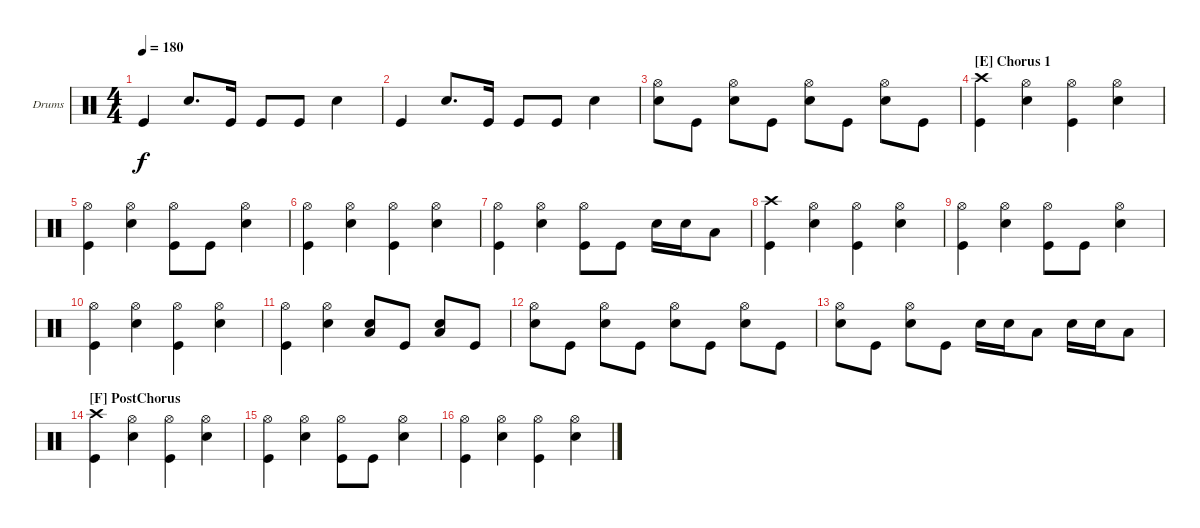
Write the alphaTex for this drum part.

\defaultSystemsLayout 4
\bracketExtendMode groupsimilarinstruments
\firstSystemTrackNameOrientation horizontal
\otherSystemsTrackNameOrientation horizontal
\track ("Drumkit" "Drums") {instrument percussion}
\staff {score}
\articulation defaults
\ts (4 4)
\tempo 180
\clef neutral
\ks c "Kick (hit)".4{dy f} "Snare (hit) 2".8{d} "Kick (hit)".16 "Kick (hit)".8 "Kick (hit)".8 "Snare (hit) 2".4
|
"Kick (hit)".4 "Snare (hit) 2".8{d} "Kick (hit)".16 "Kick (hit)".8 "Kick (hit)".8 "Snare (hit) 2".4 |
("Hi-Hat (open)" "Snare (hit) 2").8 "Kick (hit)".8 ("Hi-Hat (open)" "Snare (hit) 2").8 "Kick (hit)".8 ("Hi-Hat (open)" "Snare (hit) 2").8 "Kick (hit)".8 ("Hi-Hat (open)" "Snare (hit) 2").8 "Kick (hit)".8 |
\section ("E" "Chorus 1")
("Crash high (hit)" "Kick (hit)").4 ("Snare (hit) 2" "Hi-Hat (open)").4 ("Kick (hit)" "Hi-Hat (open)").4 ("Snare (hit) 2" "Hi-Hat (open)").4 |
("Kick (hit)" "Hi-Hat (open)").4 ("Snare (hit) 2" "Hi-Hat (open)").4 ("Kick (hit)" "Hi-Hat (open)").8 "Kick (hit)".8 ("Snare (hit) 2" "Hi-Hat (open)").4 |
("Kick (hit)" "Hi-Hat (open)").4 ("Snare (hit) 2" "Hi-Hat (open)").4 ("Kick (hit)" "Hi-Hat (open)").4 ("Snare (hit) 2" "Hi-Hat (open)").4 |
("Kick (hit)" "Hi-Hat (open)").4 ("Snare (hit) 2" "Hi-Hat (open)").4 ("Kick (hit)" "Hi-Hat (open)").8 "Kick (hit)".8 "Snare (hit) 2".16 "Snare (hit) 2".16 "Low Tom (hit)".8 |
("Crash high (hit)" "Kick (hit)").4 ("Snare (hit) 2" "Hi-Hat (open)").4 ("Kick (hit)" "Hi-Hat (open)").4 ("Snare (hit) 2" "Hi-Hat (open)").4 |
("Kick (hit)" "Hi-Hat (open)").4 ("Snare (hit) 2" "Hi-Hat (open)").4 ("Kick (hit)" "Hi-Hat (open)").8 "Kick (hit)".8 ("Snare (hit) 2" "Hi-Hat (open)").4 |
("Kick (hit)" "Hi-Hat (open)").4 ("Snare (hit) 2" "Hi-Hat (open)").4 ("Kick (hit)" "Hi-Hat (open)").4 ("Snare (hit) 2" "Hi-Hat (open)").4 |
("Kick (hit)" "Hi-Hat (open)").4 ("Snare (hit) 2" "Hi-Hat (open)").4 ("Low Tom (hit)" "Snare (hit) 2").8 "Kick (hit)".8 ("Low Tom (hit)" "Snare (hit) 2").8 "Kick (hit)".8 |
("Hi-Hat (open)" "Snare (hit) 2").8 "Kick (hit)".8 ("Hi-Hat (open)" "Snare (hit) 2").8 "Kick (hit)".8 ("Hi-Hat (open)" "Snare (hit) 2").8 "Kick (hit)".8 ("Hi-Hat (open)" "Snare (hit) 2").8 "Kick (hit)".8 |
("Hi-Hat (open)" "Snare (hit) 2").8 "Kick (hit)".8 ("Hi-Hat (open)" "Snare (hit) 2").8 "Kick (hit)".8 "Snare (hit) 2".16 "Snare (hit) 2".16 "Low Tom (hit)".8 "Snare (hit) 2".16 "Snare (hit) 2".16 "Low Tom (hit)".8 |
\section ("F" "PostChorus")
("Crash high (hit)" "Kick (hit)").4 ("Snare (hit) 2" "Hi-Hat (open)").4 ("Kick (hit)" "Hi-Hat (open)").4 ("Snare (hit) 2" "Hi-Hat (open)").4 |
("Kick (hit)" "Hi-Hat (open)").4 ("Snare (hit) 2" "Hi-Hat (open)").4 ("Kick (hit)" "Hi-Hat (open)").8 "Kick (hit)".8 ("Snare (hit) 2" "Hi-Hat (open)").4 |
("Kick (hit)" "Hi-Hat (open)").4 ("Snare (hit) 2" "Hi-Hat (open)").4 ("Kick (hit)" "Hi-Hat (open)").4 ("Snare (hit) 2" "Hi-Hat (open)").4
